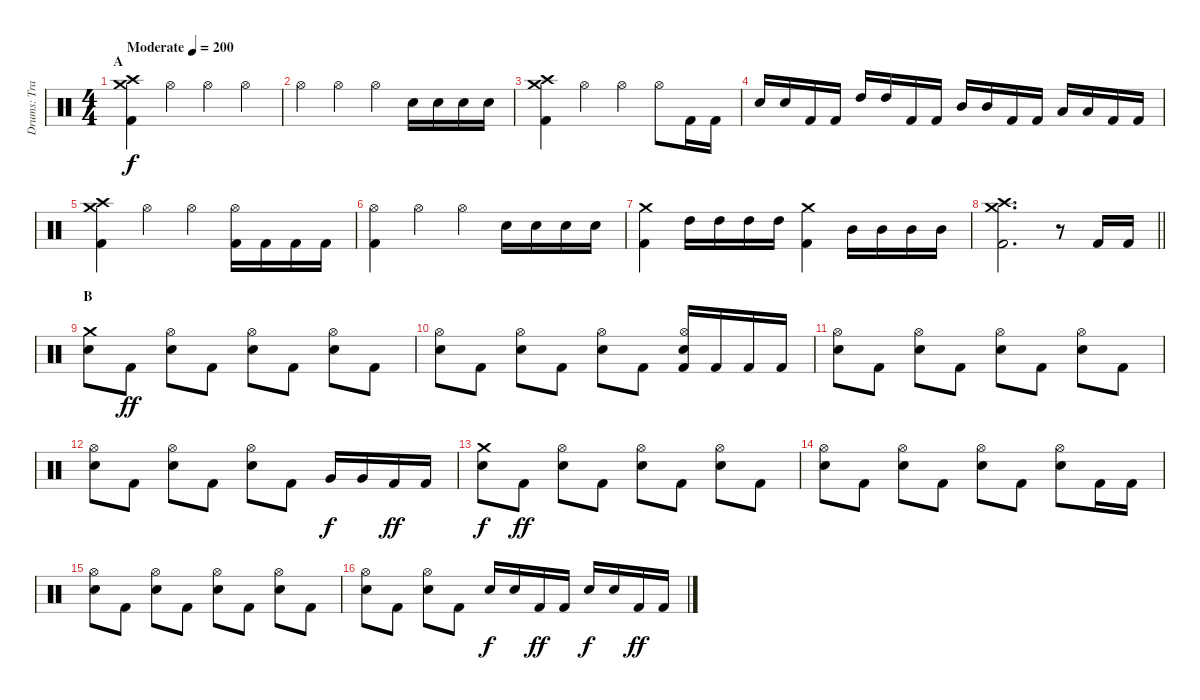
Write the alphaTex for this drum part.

\track ("Drums: Travis Clarke" "Drums: Tra") {instrument percussion}
\staff {score}
\articulation defaults
\ts (4 4)
\section ("" "A")
\tempo (200 "Moderate")
\clef neutral
\ks c
("Kick (hit) 2" "Crash medium (hit)" "Crash high (hit)").4{dy f} "Hi-Hat (open)".4 "Hi-Hat (open)".4 "Hi-Hat (open)".4 |
"Hi-Hat (open)".4 "Hi-Hat (open)".4 "Hi-Hat (open)".4 "Snare (hit) 2".16 "Snare (hit) 2".16 "Snare (hit) 2".16 "Snare (hit) 2".16 |
("Kick (hit) 2" "Crash medium (hit)" "Crash high (hit)").4 "Hi-Hat (open)".4 "Hi-Hat (open)".4 "Hi-Hat (open)".8 "Kick (hit) 2".16 "Kick (hit) 2".16 |
"Snare (hit) 2".16 "Snare (hit) 2".16 "Kick (hit) 2".16 "Kick (hit) 2".16 "High Tom (hit)".16 "High Tom (hit)".16 "Kick (hit) 2".16 "Kick (hit) 2".16 "Mid Tom (hit)".16 "Mid Tom (hit)".16 "Kick (hit) 2".16 "Kick (hit) 2".16 "Low Tom (hit)".16 "Low Tom (hit)".16 "Kick (hit) 2".16 "Kick (hit) 2".16 |
("Kick (hit) 2" "Crash medium (hit)" "Crash high (hit)").4 "Hi-Hat (open)".4 "Hi-Hat (open)".4 ("Kick (hit) 2" "Hi-Hat (open)").16 "Kick (hit) 2".16 "Kick (hit) 2".16 "Kick (hit) 2".16 |
("Kick (hit) 2" "Hi-Hat (open)").4 "Hi-Hat (open)".4 "Hi-Hat (open)".4 "Snare (hit) 2".16 "Snare (hit) 2".16 "Snare (hit) 2".16 "Snare (hit) 2".16 |
("Kick (hit) 2" "Crash medium (hit)").4 "High Tom (hit)".16 "High Tom (hit)".16 "High Tom (hit)".16 "High Tom (hit)".16 ("Kick (hit) 2" "Crash medium (hit)").4 "Mid Tom (hit)".16 "Mid Tom (hit)".16 "Mid Tom (hit)".16 "Mid Tom (hit)".16 |
\barLineRight lightlight
("Kick (hit) 2" "Crash high (hit)" "Crash medium (hit)").2{d} r.8 "Kick (hit) 2".16 "Kick (hit) 2".16 |
\section ("" "B")
("Snare (hit) 2" "Crash medium (hit)").8 "Kick (hit) 2".8{dy ff} ("Snare (hit) 2" "Hi-Hat (open)").8 "Kick (hit) 2".8 ("Snare (hit) 2" "Hi-Hat (open)").8 "Kick (hit) 2".8 ("Snare (hit) 2" "Hi-Hat (open)").8 "Kick (hit) 2".8 |
("Snare (hit) 2" "Hi-Hat (open)").8 "Kick (hit) 2".8 ("Snare (hit) 2" "Hi-Hat (open)").8 "Kick (hit) 2".8 ("Snare (hit) 2" "Hi-Hat (open)").8 "Kick (hit) 2".8 ("Kick (hit) 2" "Snare (hit) 2" "Hi-Hat (open)").16 "Kick (hit) 2".16 "Kick (hit) 2".16 "Kick (hit) 2".16 |
("Snare (hit) 2" "Hi-Hat (open)").8 "Kick (hit) 2".8 ("Snare (hit) 2" "Hi-Hat (open)").8 "Kick (hit) 2".8 ("Snare (hit) 2" "Hi-Hat (open)").8 "Kick (hit) 2".8 ("Snare (hit) 2" "Hi-Hat (open)").8 "Kick (hit) 2".8 |
("Snare (hit) 2" "Hi-Hat (open)").8 "Kick (hit) 2".8 ("Snare (hit) 2" "Hi-Hat (open)").8 "Kick (hit) 2".8 ("Snare (hit) 2" "Hi-Hat (open)").8 "Kick (hit) 2".8 "Very Low Tom (hit)".16{dy f} "Very Low Tom (hit)".16 "Kick (hit) 2".16{dy ff} "Kick (hit) 2".16 |
("Snare (hit) 2" "Crash medium (hit)").8{dy f} "Kick (hit) 2".8{dy ff} ("Snare (hit) 2" "Hi-Hat (open)").8 "Kick (hit) 2".8 ("Snare (hit) 2" "Hi-Hat (open)").8 "Kick (hit) 2".8 ("Snare (hit) 2" "Hi-Hat (open)").8 "Kick (hit) 2".8 |
("Snare (hit) 2" "Hi-Hat (open)").8 "Kick (hit) 2".8 ("Snare (hit) 2" "Hi-Hat (open)").8 "Kick (hit) 2".8 ("Snare (hit) 2" "Hi-Hat (open)").8 "Kick (hit) 2".8 ("Snare (hit) 2" "Hi-Hat (open)").8 "Kick (hit) 2".16 "Kick (hit) 2".16 |
("Snare (hit) 2" "Hi-Hat (open)").8 "Kick (hit) 2".8 ("Snare (hit) 2" "Hi-Hat (open)").8 "Kick (hit) 2".8 ("Snare (hit) 2" "Hi-Hat (open)").8 "Kick (hit) 2".8 ("Snare (hit) 2" "Hi-Hat (open)").8 "Kick (hit) 2".8 |
("Snare (hit) 2" "Hi-Hat (open)").8 "Kick (hit) 2".8 ("Snare (hit) 2" "Hi-Hat (open)").8 "Kick (hit) 2".8 "Snare (hit) 2".16{dy f} "Snare (hit) 2".16 "Kick (hit) 2".16{dy ff} "Kick (hit) 2".16 "Snare (hit) 2".16{dy f} "Snare (hit) 2".16 "Kick (hit) 2".16{dy ff} "Kick (hit) 2".16
